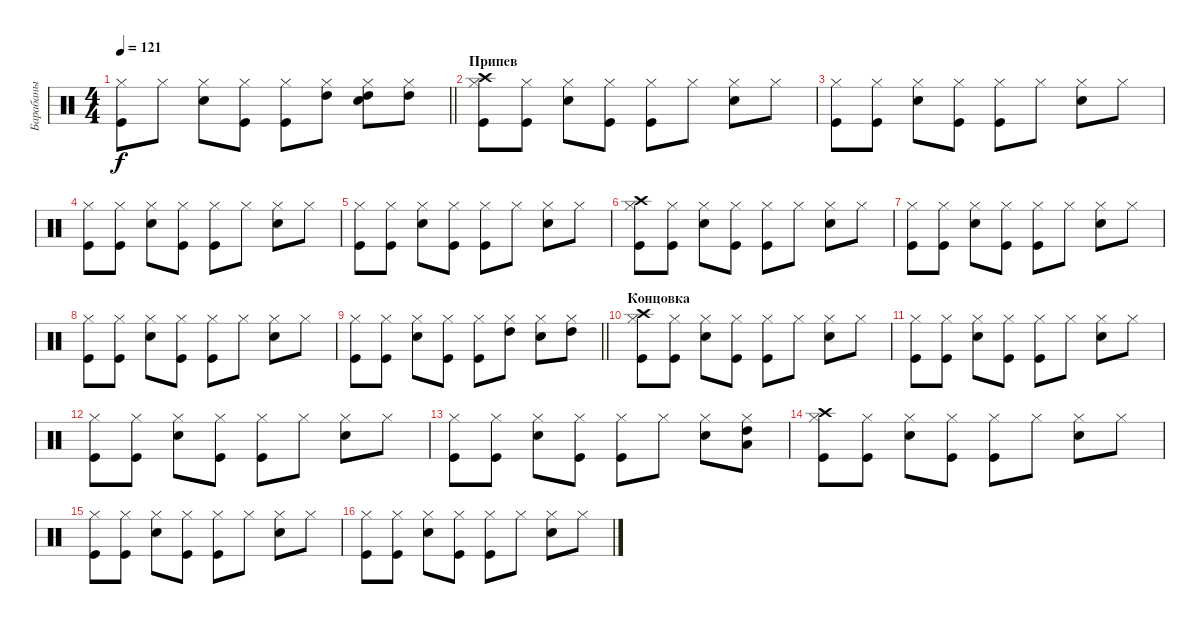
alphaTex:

\track ("Барабаны" "Барабаны") {instrument percussion}
\staff {score}
\articulation defaults
\ts (4 4)
\tempo 121
\clef neutral
\barLineRight lightlight
\ks c
("Kick (hit)" "Hi-Hat (closed)").8{dy f} "Hi-Hat (closed)".8 ("Snare (hit) 2" "Hi-Hat (closed)").8 ("Kick (hit)" "Hi-Hat (closed)").8 ("Kick (hit)" "Hi-Hat (closed)").8 ("Hi-Hat (closed)" "High Tom (hit)").8 ("Snare (hit) 2" "Hi-Hat (closed)" "High Tom (hit)").8 ("Hi-Hat (closed)" "High Tom (hit)").8 |
\section ("" "Припев")
("Kick (hit)" "Hi-Hat (closed)" "Crash high (hit)").8 ("Kick (hit)" "Hi-Hat (closed)").8 ("Snare (hit) 2" "Hi-Hat (closed)").8 ("Kick (hit)" "Hi-Hat (closed)").8 ("Kick (hit)" "Hi-Hat (closed)").8 "Hi-Hat (closed)".8 ("Snare (hit) 2" "Hi-Hat (closed)").8 "Hi-Hat (closed)".8 |
("Kick (hit)" "Hi-Hat (closed)").8 ("Kick (hit)" "Hi-Hat (closed)").8 ("Snare (hit) 2" "Hi-Hat (closed)").8 ("Kick (hit)" "Hi-Hat (closed)").8 ("Kick (hit)" "Hi-Hat (closed)").8 "Hi-Hat (closed)".8 ("Snare (hit) 2" "Hi-Hat (closed)").8 "Hi-Hat (closed)".8 |
("Kick (hit)" "Hi-Hat (closed)").8 ("Kick (hit)" "Hi-Hat (closed)").8 ("Snare (hit) 2" "Hi-Hat (closed)").8 ("Kick (hit)" "Hi-Hat (closed)").8 ("Kick (hit)" "Hi-Hat (closed)").8 "Hi-Hat (closed)".8 ("Snare (hit) 2" "Hi-Hat (closed)").8 "Hi-Hat (closed)".8 |
("Kick (hit)" "Hi-Hat (closed)").8 ("Kick (hit)" "Hi-Hat (closed)").8 ("Snare (hit) 2" "Hi-Hat (closed)").8 ("Kick (hit)" "Hi-Hat (closed)").8 ("Kick (hit)" "Hi-Hat (closed)").8 "Hi-Hat (closed)".8 ("Snare (hit) 2" "Hi-Hat (closed)").8 "Hi-Hat (closed)".8 |
("Kick (hit)" "Hi-Hat (closed)" "Crash high (hit)").8 ("Kick (hit)" "Hi-Hat (closed)").8 ("Snare (hit) 2" "Hi-Hat (closed)").8 ("Kick (hit)" "Hi-Hat (closed)").8 ("Kick (hit)" "Hi-Hat (closed)").8 "Hi-Hat (closed)".8 ("Snare (hit) 2" "Hi-Hat (closed)").8 "Hi-Hat (closed)".8 |
("Kick (hit)" "Hi-Hat (closed)").8 ("Kick (hit)" "Hi-Hat (closed)").8 ("Snare (hit) 2" "Hi-Hat (closed)").8 ("Kick (hit)" "Hi-Hat (closed)").8 ("Kick (hit)" "Hi-Hat (closed)").8 "Hi-Hat (closed)".8 ("Snare (hit) 2" "Hi-Hat (closed)").8 "Hi-Hat (closed)".8 |
("Kick (hit)" "Hi-Hat (closed)").8 ("Kick (hit)" "Hi-Hat (closed)").8 ("Snare (hit) 2" "Hi-Hat (closed)").8 ("Kick (hit)" "Hi-Hat (closed)").8 ("Kick (hit)" "Hi-Hat (closed)").8 "Hi-Hat (closed)".8 ("Snare (hit) 2" "Hi-Hat (closed)").8 "Hi-Hat (closed)".8 |
\barLineRight lightlight
("Kick (hit)" "Hi-Hat (closed)").8 ("Kick (hit)" "Hi-Hat (closed)").8 ("Snare (hit) 2" "Hi-Hat (closed)").8 ("Kick (hit)" "Hi-Hat (closed)").8 ("Kick (hit)" "Hi-Hat (closed)").8 ("Hi-Hat (closed)" "High Tom (hit)").8 ("Snare (hit) 2" "Hi-Hat (closed)").8 ("Hi-Hat (closed)" "High Tom (hit)").8 |
\section ("" "Концовка")
("Kick (hit)" "Hi-Hat (closed)" "Crash high (hit)").8 ("Kick (hit)" "Hi-Hat (closed)").8 ("Snare (hit) 2" "Hi-Hat (closed)").8 ("Kick (hit)" "Hi-Hat (closed)").8 ("Kick (hit)" "Hi-Hat (closed)").8 "Hi-Hat (closed)".8 ("Snare (hit) 2" "Hi-Hat (closed)").8 "Hi-Hat (closed)".8 |
("Kick (hit)" "Hi-Hat (closed)").8 ("Kick (hit)" "Hi-Hat (closed)").8 ("Snare (hit) 2" "Hi-Hat (closed)").8 ("Kick (hit)" "Hi-Hat (closed)").8 ("Kick (hit)" "Hi-Hat (closed)").8 "Hi-Hat (closed)".8 ("Snare (hit) 2" "Hi-Hat (closed)").8 "Hi-Hat (closed)".8 |
("Kick (hit)" "Hi-Hat (closed)").8 ("Kick (hit)" "Hi-Hat (closed)").8 ("Snare (hit) 2" "Hi-Hat (closed)").8 ("Kick (hit)" "Hi-Hat (closed)").8 ("Kick (hit)" "Hi-Hat (closed)").8 "Hi-Hat (closed)".8 ("Snare (hit) 2" "Hi-Hat (closed)").8 "Hi-Hat (closed)".8 |
("Kick (hit)" "Hi-Hat (closed)").8 ("Kick (hit)" "Hi-Hat (closed)").8 ("Snare (hit) 2" "Hi-Hat (closed)").8 ("Kick (hit)" "Hi-Hat (closed)").8 ("Kick (hit)" "Hi-Hat (closed)").8 "Hi-Hat (closed)".8 ("Snare (hit) 2" "Hi-Hat (closed)").8 ("Hi-Hat (closed)" "Low Floor Tom (hit)" "High Tom (hit)").8 |
("Kick (hit)" "Hi-Hat (closed)" "Crash high (hit)").8 ("Kick (hit)" "Hi-Hat (closed)").8 ("Snare (hit) 2" "Hi-Hat (closed)").8 ("Kick (hit)" "Hi-Hat (closed)").8 ("Kick (hit)" "Hi-Hat (closed)").8 "Hi-Hat (closed)".8 ("Snare (hit) 2" "Hi-Hat (closed)").8 "Hi-Hat (closed)".8 |
("Kick (hit)" "Hi-Hat (closed)").8 ("Kick (hit)" "Hi-Hat (closed)").8 ("Snare (hit) 2" "Hi-Hat (closed)").8 ("Kick (hit)" "Hi-Hat (closed)").8 ("Kick (hit)" "Hi-Hat (closed)").8 "Hi-Hat (closed)".8 ("Snare (hit) 2" "Hi-Hat (closed)").8 "Hi-Hat (closed)".8 |
("Kick (hit)" "Hi-Hat (closed)").8 ("Kick (hit)" "Hi-Hat (closed)").8 ("Snare (hit) 2" "Hi-Hat (closed)").8 ("Kick (hit)" "Hi-Hat (closed)").8 ("Kick (hit)" "Hi-Hat (closed)").8 "Hi-Hat (closed)".8 ("Snare (hit) 2" "Hi-Hat (closed)").8 "Hi-Hat (closed)".8
